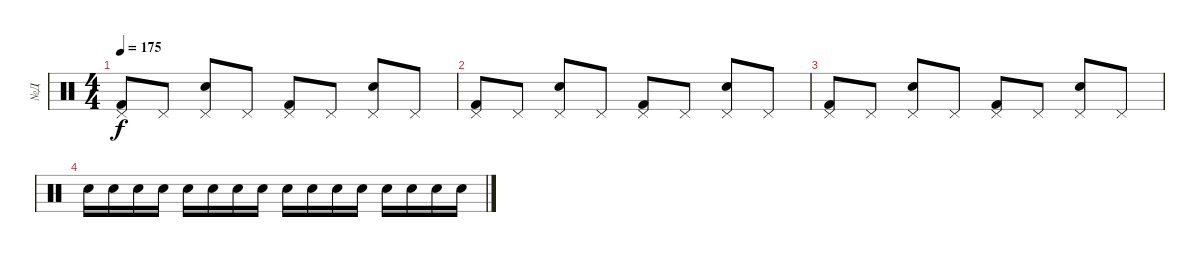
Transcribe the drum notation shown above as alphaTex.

\track ("№Д" "№Д") {instrument percussion}
\staff {score}
\articulation defaults
\ts (4 4)
\tempo 175
\clef neutral
\ks c
("Pedal Hi-Hat (hit)" "Kick (hit) 2").8{dy f} "Pedal Hi-Hat (hit)".8 ("Pedal Hi-Hat (hit)" "Electric Snare (hit)").8 "Pedal Hi-Hat (hit)".8 ("Pedal Hi-Hat (hit)" "Kick (hit) 2").8 "Pedal Hi-Hat (hit)".8 ("Pedal Hi-Hat (hit)" "Electric Snare (hit)").8 "Pedal Hi-Hat (hit)".8 |
("Pedal Hi-Hat (hit)" "Kick (hit) 2").8 "Pedal Hi-Hat (hit)".8 ("Pedal Hi-Hat (hit)" "Electric Snare (hit)").8 "Pedal Hi-Hat (hit)".8 ("Pedal Hi-Hat (hit)" "Kick (hit) 2").8 "Pedal Hi-Hat (hit)".8 ("Pedal Hi-Hat (hit)" "Electric Snare (hit)").8 "Pedal Hi-Hat (hit)".8 |
("Pedal Hi-Hat (hit)" "Kick (hit) 2").8 "Pedal Hi-Hat (hit)".8 ("Pedal Hi-Hat (hit)" "Electric Snare (hit)").8 "Pedal Hi-Hat (hit)".8 ("Pedal Hi-Hat (hit)" "Kick (hit) 2").8 "Pedal Hi-Hat (hit)".8 ("Pedal Hi-Hat (hit)" "Electric Snare (hit)").8 "Pedal Hi-Hat (hit)".8 |
"Electric Snare (hit)".16 "Electric Snare (hit)".16 "Electric Snare (hit)".16 "Electric Snare (hit)".16 "Electric Snare (hit)".16 "Electric Snare (hit)".16 "Electric Snare (hit)".16 "Electric Snare (hit)".16 "Electric Snare (hit)".16 "Electric Snare (hit)".16 "Electric Snare (hit)".16 "Electric Snare (hit)".16 "Electric Snare (hit)".16 "Electric Snare (hit)".16 "Electric Snare (hit)".16 "Electric Snare (hit)".16
